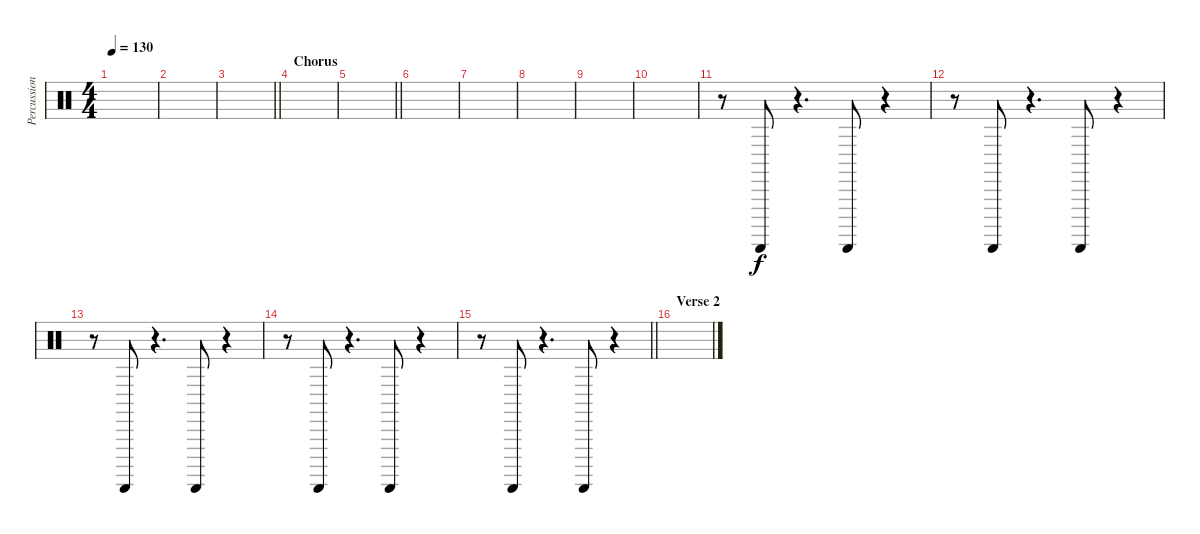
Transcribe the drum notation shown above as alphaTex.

\track ("Percussion" "Percussion") {instrument percussion}
\staff {score}
\articulation defaults
\ts (4 4)
\tempo 130
\clef neutral
\ks c
|
|
\barLineRight lightlight
|
\section ("" "Chorus")
|
\barLineRight lightlight
|
\section ("" "")
|
|
|
|
|
r.8 "Guiro (scrap-return)".8{volume 10} r.4{d} "Guiro (scrap-return)".8{volume 11} r.4 |
r.8 "Guiro (scrap-return)".8{volume 10} r.4{d} "Guiro (scrap-return)".8{volume 11} r.4 |
r.8 "Guiro (scrap-return)".8{volume 10} r.4{d} "Guiro (scrap-return)".8{volume 11} r.4 |
r.8 "Guiro (scrap-return)".8{volume 10} r.4{d} "Guiro (scrap-return)".8{volume 11} r.4 |
\barLineRight lightlight
r.8 "Guiro (scrap-return)".8{volume 10} r.4{d} "Guiro (scrap-return)".8{volume 11} r.4 |
\section ("" "Verse 2")
